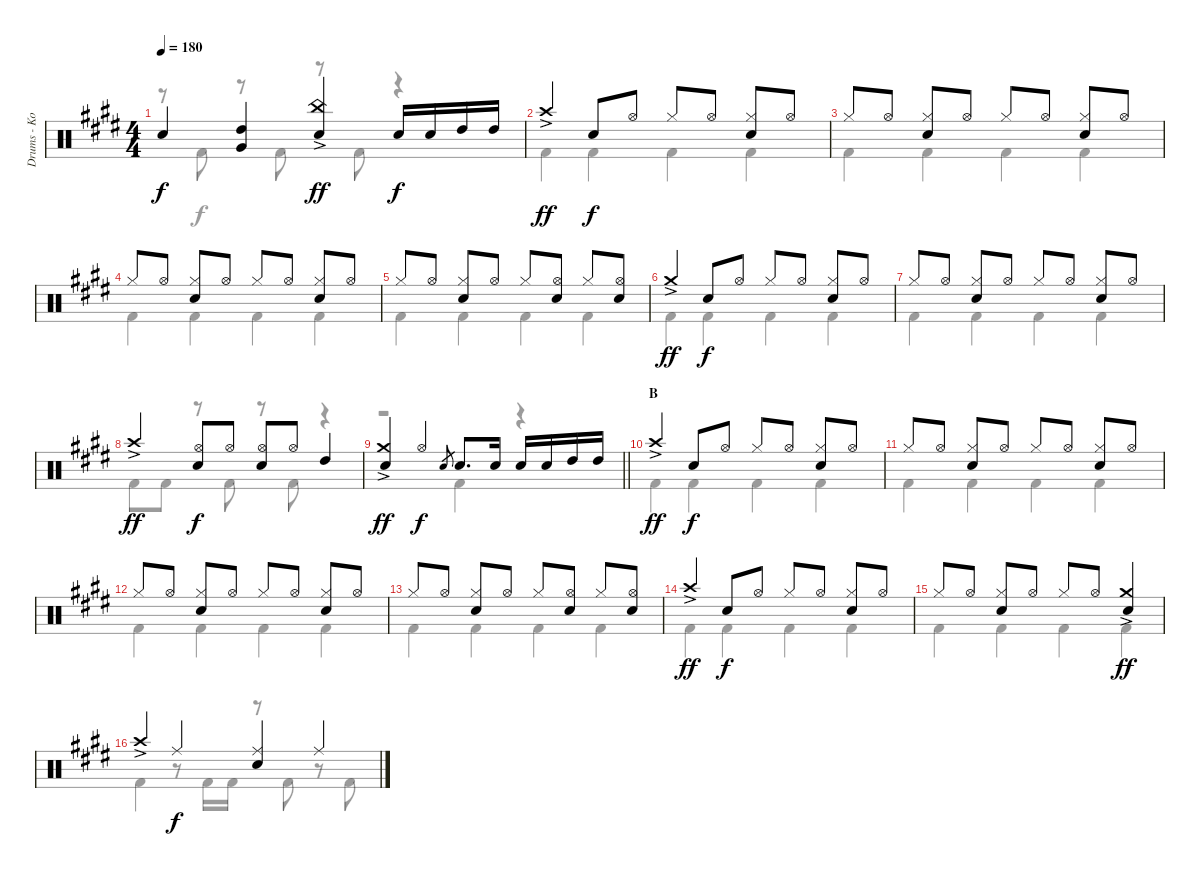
\track ("Drums - Ko-Ki" "Drums - Ko") {instrument percussion}
\staff {score}
\articulation defaults
\voice
\ts (4 4)
\tempo 180
\clef neutral
\ks e "Snare (hit)"{t}.4{dy f}
("High Tom (hit)" "Very Low Tom (hit)").4 ("China (hit)"{ac} "Snare (hit) 2").4{dy ff} "Snare (hit) 2".16{dy f} "Snare (hit) 2".16 "High Tom (hit)".16 "High Tom (hit)".16 |
"Crash high (hit)"{ac}.4{dy ff} "Snare (hit) 2".8{dy f} "Hi-Hat (open)".8 "Hi-Hat (closed)".8 "Hi-Hat (open)".8 ("Hi-Hat (closed)" "Snare (hit) 2").8 "Hi-Hat (open)".8 |
"Hi-Hat (closed)".8 "Hi-Hat (open)".8 ("Hi-Hat (closed)" "Snare (hit) 2").8 "Hi-Hat (open)".8 "Hi-Hat (closed)".8 "Hi-Hat (open)".8 ("Hi-Hat (closed)" "Snare (hit) 2").8 "Hi-Hat (open)".8 |
"Hi-Hat (closed)".8 "Hi-Hat (open)".8 ("Hi-Hat (closed)" "Snare (hit) 2").8 "Hi-Hat (open)".8 "Hi-Hat (closed)".8 "Hi-Hat (open)".8 ("Hi-Hat (closed)" "Snare (hit) 2").8 "Hi-Hat (open)".8 |
"Hi-Hat (closed)".8 "Hi-Hat (open)".8 ("Hi-Hat (closed)" "Snare (hit) 2").8 "Hi-Hat (open)".8 "Hi-Hat (closed)".8 ("Hi-Hat (open)" "Snare (hit) 2").8 "Hi-Hat (closed)".8 ("Hi-Hat (open)" "Snare (hit) 2").8 |
"Crash medium (hit)"{ac}.4{dy ff} "Snare (hit) 2".8{dy f} "Hi-Hat (open)".8 "Hi-Hat (closed)".8 "Hi-Hat (open)".8 ("Hi-Hat (closed)" "Snare (hit) 2").8 "Hi-Hat (open)".8 |
"Hi-Hat (closed)".8 "Hi-Hat (open)".8 ("Hi-Hat (closed)" "Snare (hit) 2").8 "Hi-Hat (open)".8 "Hi-Hat (closed)".8 "Hi-Hat (open)".8 ("Hi-Hat (closed)" "Snare (hit) 2").8 "Hi-Hat (open)".8 |
"Crash high (hit)"{ac}.4{dy ff} ("Hi-Hat (open)" "Snare (hit) 2").8{dy f} "Hi-Hat (open)".8 ("Hi-Hat (open)" "Snare (hit) 2").8 "Hi-Hat (open)".8 "High Tom (hit)".4 |
\barLineRight lightlight
("Crash medium (hit)"{ac} "Snare (hit) 2").4{dy ff} "Hi-Hat (open)".4{dy f} "Snare (hit) 2".8{gr} "Snare (hit) 2".8{d} "Snare (hit) 2".16 "Snare (hit) 2".16 "Snare (hit) 2".16 "High Tom (hit)".16 "High Tom (hit)".16 |
\section ("" "B")
"Crash high (hit)"{ac}.4{dy ff} "Snare (hit) 2".8{dy f} "Hi-Hat (open)".8 "Hi-Hat (closed)".8 "Hi-Hat (open)".8 ("Hi-Hat (closed)" "Snare (hit) 2").8 "Hi-Hat (open)".8 |
"Hi-Hat (closed)".8 "Hi-Hat (open)".8 ("Hi-Hat (closed)" "Snare (hit) 2").8 "Hi-Hat (open)".8 "Hi-Hat (closed)".8 "Hi-Hat (open)".8 ("Hi-Hat (closed)" "Snare (hit) 2").8 "Hi-Hat (open)".8 |
"Hi-Hat (closed)".8 "Hi-Hat (open)".8 ("Hi-Hat (closed)" "Snare (hit) 2").8 "Hi-Hat (open)".8 "Hi-Hat (closed)".8 "Hi-Hat (open)".8 ("Hi-Hat (closed)" "Snare (hit) 2").8 "Hi-Hat (open)".8 |
"Hi-Hat (closed)".8 "Hi-Hat (open)".8 ("Hi-Hat (closed)" "Snare (hit) 2").8 "Hi-Hat (open)".8 "Hi-Hat (closed)".8 ("Hi-Hat (open)" "Snare (hit) 2").8 "Hi-Hat (closed)".8 ("Hi-Hat (open)" "Snare (hit) 2").8 |
"Crash high (hit)"{ac}.4{dy ff} "Snare (hit) 2".8{dy f} "Hi-Hat (open)".8 "Hi-Hat (closed)".8 "Hi-Hat (open)".8 ("Hi-Hat (closed)" "Snare (hit) 2").8 "Hi-Hat (open)".8 |
"Hi-Hat (closed)".8 "Hi-Hat (open)".8 ("Hi-Hat (closed)" "Snare (hit) 2").8 "Hi-Hat (open)".8 "Hi-Hat (closed)".8 "Hi-Hat (open)".8 ("Crash medium (hit)"{ac} "Snare (hit) 2").4{dy ff} |
"Crash high (hit)"{ac}.4 "Ride (middle)".4{dy f} ("Ride (middle)" "Snare (hit) 2").4 "Ride (middle)".4
\voice
\clef neutral
\ottava regular
\simile none
\ks e
r.8{dy f} "Kick (hit) 2".8 r.8 "Kick (hit) 2".8 r.8 "Kick (hit) 2".8 r.4 |
"Kick (hit) 2".4 "Kick (hit) 2".4 "Kick (hit) 2".4 "Kick (hit) 2".4 |
"Kick (hit) 2".4 "Kick (hit) 2".4 "Kick (hit) 2".4 "Kick (hit) 2".4 |
"Kick (hit) 2".4 "Kick (hit) 2".4 "Kick (hit) 2".4 "Kick (hit) 2".4 |
"Kick (hit) 2".4 "Kick (hit) 2".4 "Kick (hit) 2".4 "Kick (hit) 2".4 |
"Kick (hit) 2".4 "Kick (hit) 2".4 "Kick (hit) 2".4 "Kick (hit) 2".4 |
"Kick (hit) 2".4 "Kick (hit) 2".4 "Kick (hit) 2".4 "Kick (hit) 2".4 |
"Kick (hit) 2".8 "Kick (hit) 2".8 r.8 "Kick (hit) 2".8 r.8 "Kick (hit) 2".8 r.4 |
\barLineRight lightlight
r.2 "Kick (hit) 2".4 r.4 |
"Kick (hit) 2".4 "Kick (hit) 2".4 "Kick (hit) 2".4 "Kick (hit) 2".4 |
"Kick (hit) 2".4 "Kick (hit) 2".4 "Kick (hit) 2".4 "Kick (hit) 2".4 |
"Kick (hit) 2".4 "Kick (hit) 2".4 "Kick (hit) 2".4 "Kick (hit) 2".4 |
"Kick (hit) 2".4 "Kick (hit) 2".4 "Kick (hit) 2".4 "Kick (hit) 2".4 |
"Kick (hit) 2".4 "Kick (hit) 2".4 "Kick (hit) 2".4 "Kick (hit) 2".4 |
"Kick (hit) 2".4 "Kick (hit) 2".4 "Kick (hit) 2".4 "Kick (hit) 2".4 |
"Kick (hit) 2".4 r.8 "Kick (hit) 2".16 "Kick (hit) 2".16 r.8 "Kick (hit) 2".8 r.8 "Kick (hit) 2".8
